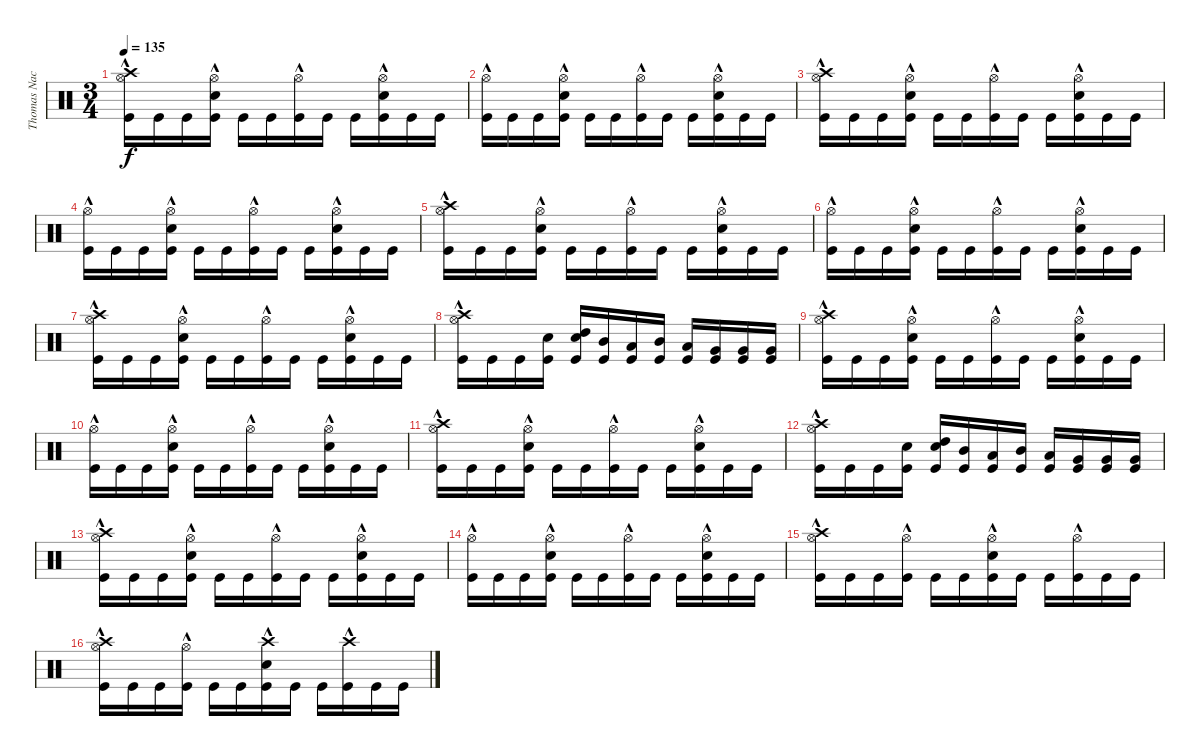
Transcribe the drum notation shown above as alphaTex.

\track ("Thomas Nack" "Thomas Nac") {instrument percussion}
\staff {score}
\articulation defaults
\ts (3 4)
\tempo 135
\clef neutral
\ks c
("Crash high (hit)" "Hi-Hat (open)"{hac} "Kick (hit)").16{dy f} "Kick (hit)".16 "Kick (hit)".16 ("Hi-Hat (open)"{hac} "Kick (hit)" "Electric Snare (hit)").16 "Kick (hit)".16 "Kick (hit)".16 ("Hi-Hat (open)"{hac} "Kick (hit)").16 "Kick (hit)".16 "Kick (hit)".16 ("Hi-Hat (open)"{hac} "Kick (hit)" "Electric Snare (hit)").16 "Kick (hit)".16 "Kick (hit)".16 |
("Hi-Hat (open)"{hac} "Kick (hit)").16 "Kick (hit)".16 "Kick (hit)".16 ("Hi-Hat (open)"{hac} "Kick (hit)" "Electric Snare (hit)").16 "Kick (hit)".16 "Kick (hit)".16 ("Hi-Hat (open)"{hac} "Kick (hit)").16 "Kick (hit)".16 "Kick (hit)".16 ("Hi-Hat (open)"{hac} "Kick (hit)" "Electric Snare (hit)").16 "Kick (hit)".16 "Kick (hit)".16 |
("Crash high (hit)" "Hi-Hat (open)"{hac} "Kick (hit)").16 "Kick (hit)".16 "Kick (hit)".16 ("Hi-Hat (open)"{hac} "Kick (hit)" "Electric Snare (hit)").16 "Kick (hit)".16 "Kick (hit)".16 ("Hi-Hat (open)"{hac} "Kick (hit)").16 "Kick (hit)".16 "Kick (hit)".16 ("Hi-Hat (open)"{hac} "Kick (hit)" "Electric Snare (hit)").16 "Kick (hit)".16 "Kick (hit)".16 |
("Hi-Hat (open)"{hac} "Kick (hit)").16 "Kick (hit)".16 "Kick (hit)".16 ("Hi-Hat (open)"{hac} "Kick (hit)" "Electric Snare (hit)").16 "Kick (hit)".16 "Kick (hit)".16 ("Hi-Hat (open)"{hac} "Kick (hit)").16 "Kick (hit)".16 "Kick (hit)".16 ("Hi-Hat (open)"{hac} "Kick (hit)" "Electric Snare (hit)").16 "Kick (hit)".16 "Kick (hit)".16 |
("Crash high (hit)" "Hi-Hat (open)"{hac} "Kick (hit)").16 "Kick (hit)".16 "Kick (hit)".16 ("Hi-Hat (open)"{hac} "Kick (hit)" "Electric Snare (hit)").16 "Kick (hit)".16 "Kick (hit)".16 ("Hi-Hat (open)"{hac} "Kick (hit)").16 "Kick (hit)".16 "Kick (hit)".16 ("Hi-Hat (open)"{hac} "Kick (hit)" "Electric Snare (hit)").16 "Kick (hit)".16 "Kick (hit)".16 |
("Hi-Hat (open)"{hac} "Kick (hit)").16 "Kick (hit)".16 "Kick (hit)".16 ("Hi-Hat (open)"{hac} "Kick (hit)" "Electric Snare (hit)").16 "Kick (hit)".16 "Kick (hit)".16 ("Hi-Hat (open)"{hac} "Kick (hit)").16 "Kick (hit)".16 "Kick (hit)".16 ("Hi-Hat (open)"{hac} "Kick (hit)" "Electric Snare (hit)").16 "Kick (hit)".16 "Kick (hit)".16 |
("Crash high (hit)" "Hi-Hat (open)"{hac} "Kick (hit)").16 "Kick (hit)".16 "Kick (hit)".16 ("Hi-Hat (open)"{hac} "Kick (hit)" "Electric Snare (hit)").16 "Kick (hit)".16 "Kick (hit)".16 ("Hi-Hat (open)"{hac} "Kick (hit)").16 "Kick (hit)".16 "Kick (hit)".16 ("Hi-Hat (open)"{hac} "Kick (hit)" "Electric Snare (hit)").16 "Kick (hit)".16 "Kick (hit)".16 |
("Crash high (hit)" "Hi-Hat (open)"{hac} "Kick (hit)").16 "Kick (hit)".16 "Kick (hit)".16 ("Electric Snare (hit)" "Kick (hit)").16 ("Electric Snare (hit)" "High Tom (hit)" "Kick (hit)").16 ("Mid Tom (hit)" "Kick (hit)").16 ("Low Tom (hit)" "Kick (hit)").16 ("Mid Tom (hit)" "Kick (hit)").16 ("Low Tom (hit)" "Kick (hit)").16 ("Very Low Tom (hit)" "Kick (hit)").16 ("Very Low Tom (hit)" "Kick (hit)").16 ("Very Low Tom (hit)" "Kick (hit)").16 |
("Crash high (hit)" "Hi-Hat (open)"{hac} "Kick (hit)").16 "Kick (hit)".16 "Kick (hit)".16 ("Hi-Hat (open)"{hac} "Kick (hit)" "Electric Snare (hit)").16 "Kick (hit)".16 "Kick (hit)".16 ("Hi-Hat (open)"{hac} "Kick (hit)").16 "Kick (hit)".16 "Kick (hit)".16 ("Hi-Hat (open)"{hac} "Kick (hit)" "Electric Snare (hit)").16 "Kick (hit)".16 "Kick (hit)".16 |
("Hi-Hat (open)"{hac} "Kick (hit)").16 "Kick (hit)".16 "Kick (hit)".16 ("Hi-Hat (open)"{hac} "Kick (hit)" "Electric Snare (hit)").16 "Kick (hit)".16 "Kick (hit)".16 ("Hi-Hat (open)"{hac} "Kick (hit)").16 "Kick (hit)".16 "Kick (hit)".16 ("Hi-Hat (open)"{hac} "Kick (hit)" "Electric Snare (hit)").16 "Kick (hit)".16 "Kick (hit)".16 |
("Crash high (hit)" "Hi-Hat (open)"{hac} "Kick (hit)").16 "Kick (hit)".16 "Kick (hit)".16 ("Hi-Hat (open)"{hac} "Kick (hit)" "Electric Snare (hit)").16 "Kick (hit)".16 "Kick (hit)".16 ("Hi-Hat (open)"{hac} "Kick (hit)").16 "Kick (hit)".16 "Kick (hit)".16 ("Hi-Hat (open)"{hac} "Kick (hit)" "Electric Snare (hit)").16 "Kick (hit)".16 "Kick (hit)".16 |
("Crash high (hit)" "Hi-Hat (open)"{hac} "Kick (hit)").16 "Kick (hit)".16 "Kick (hit)".16 ("Electric Snare (hit)" "Kick (hit)").16 ("Electric Snare (hit)" "High Tom (hit)" "Kick (hit)").16 ("Mid Tom (hit)" "Kick (hit)").16 ("Low Tom (hit)" "Kick (hit)").16 ("Mid Tom (hit)" "Kick (hit)").16 ("Low Tom (hit)" "Kick (hit)").16 ("Very Low Tom (hit)" "Kick (hit)").16 ("Very Low Tom (hit)" "Kick (hit)").16 ("Very Low Tom (hit)" "Kick (hit)").16 |
("Crash high (hit)" "Hi-Hat (open)"{hac} "Kick (hit)").16 "Kick (hit)".16 "Kick (hit)".16 ("Hi-Hat (open)"{hac} "Kick (hit)" "Electric Snare (hit)").16 "Kick (hit)".16 "Kick (hit)".16 ("Hi-Hat (open)"{hac} "Kick (hit)").16 "Kick (hit)".16 "Kick (hit)".16 ("Hi-Hat (open)"{hac} "Kick (hit)" "Electric Snare (hit)").16 "Kick (hit)".16 "Kick (hit)".16 |
("Hi-Hat (open)"{hac} "Kick (hit)").16 "Kick (hit)".16 "Kick (hit)".16 ("Hi-Hat (open)"{hac} "Kick (hit)" "Electric Snare (hit)").16 "Kick (hit)".16 "Kick (hit)".16 ("Hi-Hat (open)"{hac} "Kick (hit)").16 "Kick (hit)".16 "Kick (hit)".16 ("Hi-Hat (open)"{hac} "Kick (hit)" "Electric Snare (hit)").16 "Kick (hit)".16 "Kick (hit)".16 |
("Crash high (hit)" "Hi-Hat (open)"{hac} "Kick (hit)").16 "Kick (hit)".16 "Kick (hit)".16 ("Hi-Hat (open)"{hac} "Kick (hit)").16 "Kick (hit)".16 "Kick (hit)".16 ("Electric Snare (hit)" "Hi-Hat (open)"{hac} "Kick (hit)").16 "Kick (hit)".16 "Kick (hit)".16 ("Hi-Hat (open)"{hac} "Kick (hit)").16 "Kick (hit)".16 "Kick (hit)".16 |
("Crash high (hit)" "Hi-Hat (open)"{hac} "Kick (hit)").16 "Kick (hit)".16 "Kick (hit)".16 ("Hi-Hat (open)"{hac} "Kick (hit)").16 "Kick (hit)".16 "Kick (hit)".16 ("Electric Snare (hit)" "Crash high (hit)"{hac} "Kick (hit)").16 "Kick (hit)".16 "Kick (hit)".16 ("Crash high (hit)"{hac} "Kick (hit)").16 "Kick (hit)".16 "Kick (hit)".16
